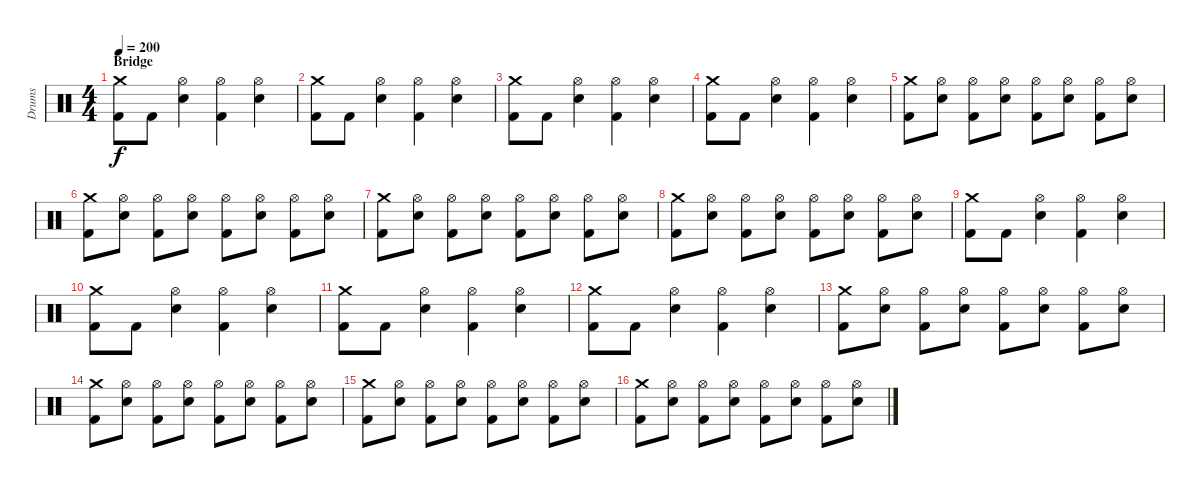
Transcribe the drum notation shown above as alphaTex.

\track ("Drums" "Drums") {instrument percussion}
\staff {score}
\articulation defaults
\ts (4 4)
\section ("" "Bridge")
\tempo 200
\clef neutral
\ks c
("Crash medium (hit)" "Kick (hit) 2").8{dy f} "Kick (hit) 2".8 ("Hi-Hat (open)" "Snare (hit) 2").4 ("Hi-Hat (open)" "Kick (hit) 2").4 ("Hi-Hat (open)" "Snare (hit) 2").4 |
("Crash medium (hit)" "Kick (hit) 2").8 "Kick (hit) 2".8 ("Hi-Hat (open)" "Snare (hit) 2").4 ("Hi-Hat (open)" "Kick (hit) 2").4 ("Hi-Hat (open)" "Snare (hit) 2").4 |
("Crash medium (hit)" "Kick (hit) 2").8 "Kick (hit) 2".8 ("Hi-Hat (open)" "Snare (hit) 2").4 ("Hi-Hat (open)" "Kick (hit) 2").4 ("Hi-Hat (open)" "Snare (hit) 2").4 |
("Crash medium (hit)" "Kick (hit) 2").8 "Kick (hit) 2".8 ("Hi-Hat (open)" "Snare (hit) 2").4 ("Hi-Hat (open)" "Kick (hit) 2").4 ("Hi-Hat (open)" "Snare (hit) 2").4 |
("Crash medium (hit)" "Kick (hit) 2").8 ("Hi-Hat (open)" "Snare (hit) 2").8 ("Hi-Hat (open)" "Kick (hit) 2").8 ("Hi-Hat (open)" "Snare (hit) 2").8 ("Hi-Hat (open)" "Kick (hit) 2").8 ("Hi-Hat (open)" "Snare (hit) 2").8 ("Hi-Hat (open)" "Kick (hit) 2").8 ("Hi-Hat (open)" "Snare (hit) 2").8 |
("Crash medium (hit)" "Kick (hit) 2").8 ("Hi-Hat (open)" "Snare (hit) 2").8 ("Hi-Hat (open)" "Kick (hit) 2").8 ("Hi-Hat (open)" "Snare (hit) 2").8 ("Hi-Hat (open)" "Kick (hit) 2").8 ("Hi-Hat (open)" "Snare (hit) 2").8 ("Hi-Hat (open)" "Kick (hit) 2").8 ("Hi-Hat (open)" "Snare (hit) 2").8 |
("Crash medium (hit)" "Kick (hit) 2").8 ("Hi-Hat (open)" "Snare (hit) 2").8 ("Hi-Hat (open)" "Kick (hit) 2").8 ("Hi-Hat (open)" "Snare (hit) 2").8 ("Hi-Hat (open)" "Kick (hit) 2").8 ("Hi-Hat (open)" "Snare (hit) 2").8 ("Hi-Hat (open)" "Kick (hit) 2").8 ("Hi-Hat (open)" "Snare (hit) 2").8 |
("Crash medium (hit)" "Kick (hit) 2").8 ("Hi-Hat (open)" "Snare (hit) 2").8 ("Hi-Hat (open)" "Kick (hit) 2").8 ("Hi-Hat (open)" "Snare (hit) 2").8 ("Hi-Hat (open)" "Kick (hit) 2").8 ("Hi-Hat (open)" "Snare (hit) 2").8 ("Hi-Hat (open)" "Kick (hit) 2").8 ("Hi-Hat (open)" "Snare (hit) 2").8 |
("Crash medium (hit)" "Kick (hit) 2").8 "Kick (hit) 2".8 ("Hi-Hat (open)" "Snare (hit) 2").4 ("Hi-Hat (open)" "Kick (hit) 2").4 ("Hi-Hat (open)" "Snare (hit) 2").4 |
("Crash medium (hit)" "Kick (hit) 2").8 "Kick (hit) 2".8 ("Hi-Hat (open)" "Snare (hit) 2").4 ("Hi-Hat (open)" "Kick (hit) 2").4 ("Hi-Hat (open)" "Snare (hit) 2").4 |
("Crash medium (hit)" "Kick (hit) 2").8 "Kick (hit) 2".8 ("Hi-Hat (open)" "Snare (hit) 2").4 ("Hi-Hat (open)" "Kick (hit) 2").4 ("Hi-Hat (open)" "Snare (hit) 2").4 |
("Crash medium (hit)" "Kick (hit) 2").8 "Kick (hit) 2".8 ("Hi-Hat (open)" "Snare (hit) 2").4 ("Hi-Hat (open)" "Kick (hit) 2").4 ("Hi-Hat (open)" "Snare (hit) 2").4 |
("Crash medium (hit)" "Kick (hit) 2").8 ("Hi-Hat (open)" "Snare (hit) 2").8 ("Hi-Hat (open)" "Kick (hit) 2").8 ("Hi-Hat (open)" "Snare (hit) 2").8 ("Hi-Hat (open)" "Kick (hit) 2").8 ("Hi-Hat (open)" "Snare (hit) 2").8 ("Hi-Hat (open)" "Kick (hit) 2").8 ("Hi-Hat (open)" "Snare (hit) 2").8 |
("Crash medium (hit)" "Kick (hit) 2").8 ("Hi-Hat (open)" "Snare (hit) 2").8 ("Hi-Hat (open)" "Kick (hit) 2").8 ("Hi-Hat (open)" "Snare (hit) 2").8 ("Hi-Hat (open)" "Kick (hit) 2").8 ("Hi-Hat (open)" "Snare (hit) 2").8 ("Hi-Hat (open)" "Kick (hit) 2").8 ("Hi-Hat (open)" "Snare (hit) 2").8 |
("Crash medium (hit)" "Kick (hit) 2").8 ("Hi-Hat (open)" "Snare (hit) 2").8 ("Hi-Hat (open)" "Kick (hit) 2").8 ("Hi-Hat (open)" "Snare (hit) 2").8 ("Hi-Hat (open)" "Kick (hit) 2").8 ("Hi-Hat (open)" "Snare (hit) 2").8 ("Hi-Hat (open)" "Kick (hit) 2").8 ("Hi-Hat (open)" "Snare (hit) 2").8 |
("Crash medium (hit)" "Kick (hit) 2").8 ("Hi-Hat (open)" "Snare (hit) 2").8 ("Hi-Hat (open)" "Kick (hit) 2").8 ("Hi-Hat (open)" "Snare (hit) 2").8 ("Hi-Hat (open)" "Kick (hit) 2").8 ("Hi-Hat (open)" "Snare (hit) 2").8 ("Hi-Hat (open)" "Kick (hit) 2").8 ("Hi-Hat (open)" "Snare (hit) 2").8
